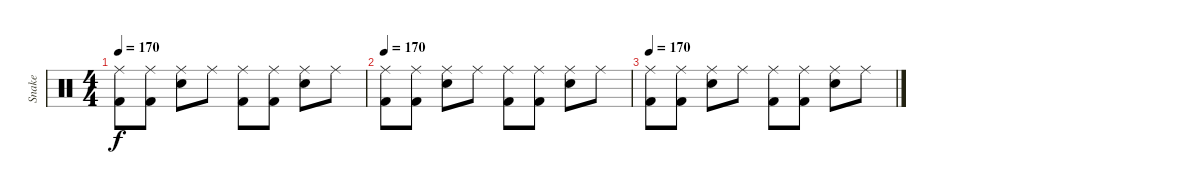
\track ("Snake" "Snake") {instrument percussion}
\staff {score}
\articulation defaults
\ts (4 4)
\tempo 170
\clef neutral
\ks c
("Ride (middle)" "Kick (hit) 2").8{dy f} ("Ride (middle)" "Kick (hit) 2").8 ("Ride (middle)" "Snare (hit) 2").8 "Ride (middle)".8 ("Ride (middle)" "Kick (hit) 2").8 ("Ride (middle)" "Kick (hit) 2").8 ("Ride (middle)" "Snare (hit) 2").8 "Ride (middle)".8 |
\tempo 170
("Ride (middle)" "Kick (hit) 2").8 ("Ride (middle)" "Kick (hit) 2").8 ("Ride (middle)" "Snare (hit) 2").8 "Ride (middle)".8 ("Ride (middle)" "Kick (hit) 2").8 ("Ride (middle)" "Kick (hit) 2").8 ("Ride (middle)" "Snare (hit) 2").8 "Ride (middle)".8 |
\tempo 170
("Ride (middle)" "Kick (hit) 2").8 ("Ride (middle)" "Kick (hit) 2").8 ("Ride (middle)" "Snare (hit) 2").8 "Ride (middle)".8 ("Ride (middle)" "Kick (hit) 2").8 ("Ride (middle)" "Kick (hit) 2").8 ("Ride (middle)" "Snare (hit) 2").8 "Ride (middle)".8
